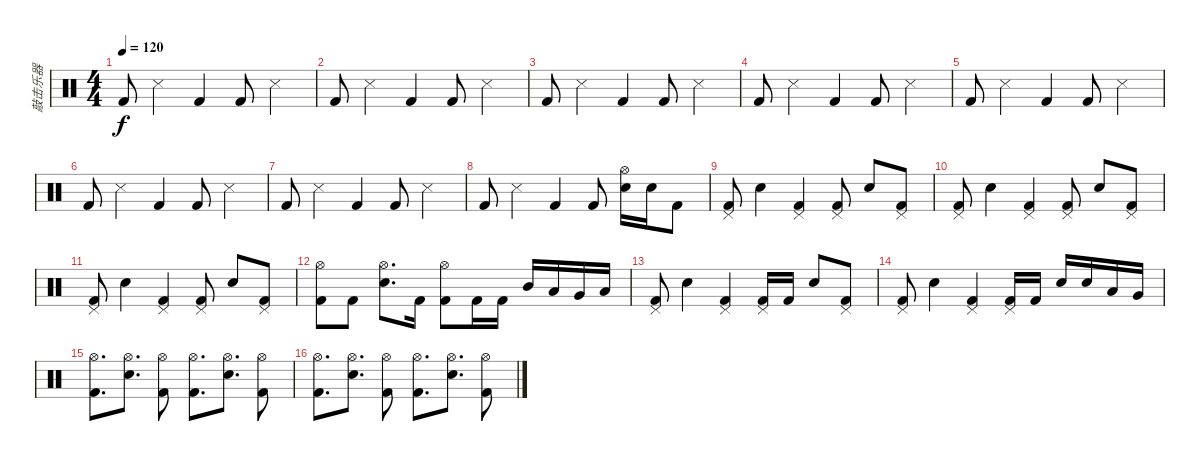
\track ("敲击乐器" "敲击乐器") {instrument percussion}
\staff {score}
\articulation defaults
\ts (4 4)
\tempo 120
\clef neutral
\ks c "Kick (hit) 2".8{dy f} "Snare (side stick) 3".4 "Kick (hit) 2".4 "Kick (hit) 2".8 "Snare (side stick) 3".4
|
"Kick (hit) 2".8 "Snare (side stick) 3".4 "Kick (hit) 2".4 "Kick (hit) 2".8 "Snare (side stick) 3".4 |
"Kick (hit) 2".8 "Snare (side stick) 3".4 "Kick (hit) 2".4 "Kick (hit) 2".8 "Snare (side stick) 3".4 |
"Kick (hit) 2".8 "Snare (side stick) 3".4 "Kick (hit) 2".4 "Kick (hit) 2".8 "Snare (side stick) 3".4 |
"Kick (hit) 2".8 "Snare (side stick) 3".4 "Kick (hit) 2".4 "Kick (hit) 2".8 "Snare (side stick) 3".4 |
"Kick (hit) 2".8 "Snare (side stick) 3".4 "Kick (hit) 2".4 "Kick (hit) 2".8 "Snare (side stick) 3".4 |
"Kick (hit) 2".8 "Snare (side stick) 3".4 "Kick (hit) 2".4 "Kick (hit) 2".8 "Snare (side stick) 3".4 |
"Kick (hit) 2".8 "Snare (side stick) 3".4 "Kick (hit) 2".4 "Kick (hit) 2".8 ("Hi-Hat (open)" "Snare (hit) 2").16 "Snare (hit) 2".16 "Kick (hit) 2".8 |
("Pedal Hi-Hat (hit)" "Kick (hit) 2").8 "Snare (hit) 2".4 ("Pedal Hi-Hat (hit)" "Kick (hit) 2").4 ("Pedal Hi-Hat (hit)" "Kick (hit) 2").8 "Snare (hit) 2".8 ("Pedal Hi-Hat (hit)" "Kick (hit) 2").8 |
("Pedal Hi-Hat (hit)" "Kick (hit) 2").8 "Snare (hit) 2".4 ("Pedal Hi-Hat (hit)" "Kick (hit) 2").4 ("Pedal Hi-Hat (hit)" "Kick (hit) 2").8 "Snare (hit) 2".8 ("Pedal Hi-Hat (hit)" "Kick (hit) 2").8 |
("Pedal Hi-Hat (hit)" "Kick (hit) 2").8 "Snare (hit) 2".4 ("Pedal Hi-Hat (hit)" "Kick (hit) 2").4 ("Pedal Hi-Hat (hit)" "Kick (hit) 2").8 "Snare (hit) 2".8 ("Pedal Hi-Hat (hit)" "Kick (hit) 2").8 |
("Hi-Hat (open)" "Kick (hit) 2").8 "Kick (hit) 2".8 ("Hi-Hat (open)" "Snare (hit) 2").8{d} "Kick (hit) 2".16 ("Hi-Hat (open)" "Kick (hit) 2").8 "Kick (hit) 2".16 "Kick (hit) 2".16 "Mid Tom (hit)".16 "Low Tom (hit)".16 "Very Low Tom (hit)".16 "Low Floor Tom (hit)".16 |
("Pedal Hi-Hat (hit)" "Kick (hit) 2").8 "Snare (hit) 2".4 ("Pedal Hi-Hat (hit)" "Kick (hit) 2").4 ("Pedal Hi-Hat (hit)" "Kick (hit) 2").16 "Kick (hit) 2".16 "Snare (hit) 2".8 ("Pedal Hi-Hat (hit)" "Kick (hit) 2").8 |
("Pedal Hi-Hat (hit)" "Kick (hit) 2").8 "Snare (hit) 2".4 ("Pedal Hi-Hat (hit)" "Kick (hit) 2").4 ("Pedal Hi-Hat (hit)" "Kick (hit) 2").16 "Kick (hit) 2".16 "Snare (hit) 2".16 "Snare (hit) 2".16 "Low Tom (hit)".16 "Very Low Tom (hit)".16 |
("Hi-Hat (open)" "Kick (hit) 2").8{d} ("Hi-Hat (open)" "Snare (hit) 2").8{d} ("Hi-Hat (open)" "Kick (hit) 2").8 ("Hi-Hat (open)" "Kick (hit) 2").8{d} ("Hi-Hat (open)" "Snare (hit) 2").8{d} ("Hi-Hat (open)" "Kick (hit) 2").8 |
("Hi-Hat (open)" "Kick (hit) 2").8{d} ("Hi-Hat (open)" "Snare (hit) 2").8{d} ("Hi-Hat (open)" "Kick (hit) 2").8 ("Hi-Hat (open)" "Kick (hit) 2").8{d} ("Hi-Hat (open)" "Snare (hit) 2").8{d} ("Hi-Hat (open)" "Kick (hit) 2").8
